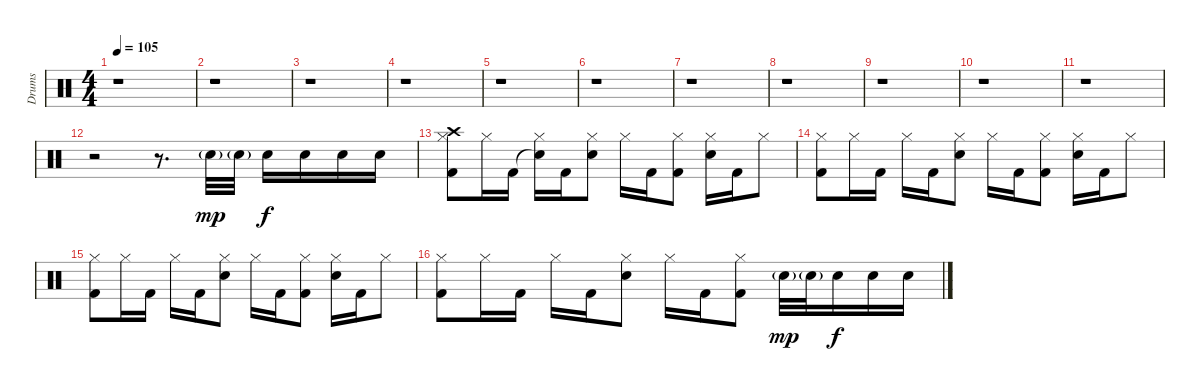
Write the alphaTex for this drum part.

\track ("Drums" "Drums") {instrument percussion}
\staff {score}
\articulation defaults
\ts (4 4)
\tempo 105
\clef neutral
\ks c
r.1{dy mp} |
r.1 |
r.1 |
r.1 |
r.1 |
r.1 |
r.1 |
r.1 |
r.1 |
r.1 |
r.1 |
r.2 r.8{d} "Electric Snare (hit)"{g}.32 "Electric Snare (hit)"{g}.32 "Electric Snare (hit)".16{dy f} "Electric Snare (hit)".16 "Electric Snare (hit)".16 "Electric Snare (hit)".16 |
("Crash high (hit)" "Hi-Hat (closed)" "Kick (hit) 2").8 "Hi-Hat (closed)".16 "Kick (hit) 2".16 ("Snare (hit)"{t} "Hi-Hat (closed)").16 "Kick (hit) 2".16 ("Hi-Hat (closed)" "Electric Snare (hit)").8 "Hi-Hat (closed)".16 "Kick (hit) 2".16 ("Hi-Hat (closed)" "Kick (hit) 2").8 ("Hi-Hat (closed)" "Electric Snare (hit)").16 "Kick (hit) 2".16 "Hi-Hat (closed)".8 |
("Hi-Hat (closed)" "Kick (hit) 2").8 "Hi-Hat (closed)".16 "Kick (hit) 2".16 "Hi-Hat (closed)".16 "Kick (hit) 2".16 ("Hi-Hat (closed)" "Electric Snare (hit)").8 "Hi-Hat (closed)".16 "Kick (hit) 2".16 ("Hi-Hat (closed)" "Kick (hit) 2").8 ("Hi-Hat (closed)" "Electric Snare (hit)").16 "Kick (hit) 2".16 "Hi-Hat (closed)".8 |
("Hi-Hat (closed)" "Kick (hit) 2").8 "Hi-Hat (closed)".16 "Kick (hit) 2".16 "Hi-Hat (closed)".16 "Kick (hit) 2".16 ("Hi-Hat (closed)" "Electric Snare (hit)").8 "Hi-Hat (closed)".16 "Kick (hit) 2".16 ("Hi-Hat (closed)" "Kick (hit) 2").8 ("Hi-Hat (closed)" "Electric Snare (hit)").16 "Kick (hit) 2".16 "Hi-Hat (closed)".8 |
("Hi-Hat (closed)" "Kick (hit) 2").8 "Hi-Hat (closed)".16 "Kick (hit) 2".16 "Hi-Hat (closed)".16 "Kick (hit) 2".16 ("Hi-Hat (closed)" "Electric Snare (hit)").8 "Hi-Hat (closed)".16 "Kick (hit) 2".16 ("Hi-Hat (closed)" "Kick (hit) 2").8 "Electric Snare (hit)"{g}.32{dy mp} "Electric Snare (hit)"{g}.32 "Electric Snare (hit)".16{dy f} "Electric Snare (hit)".16 "Electric Snare (hit)".16
